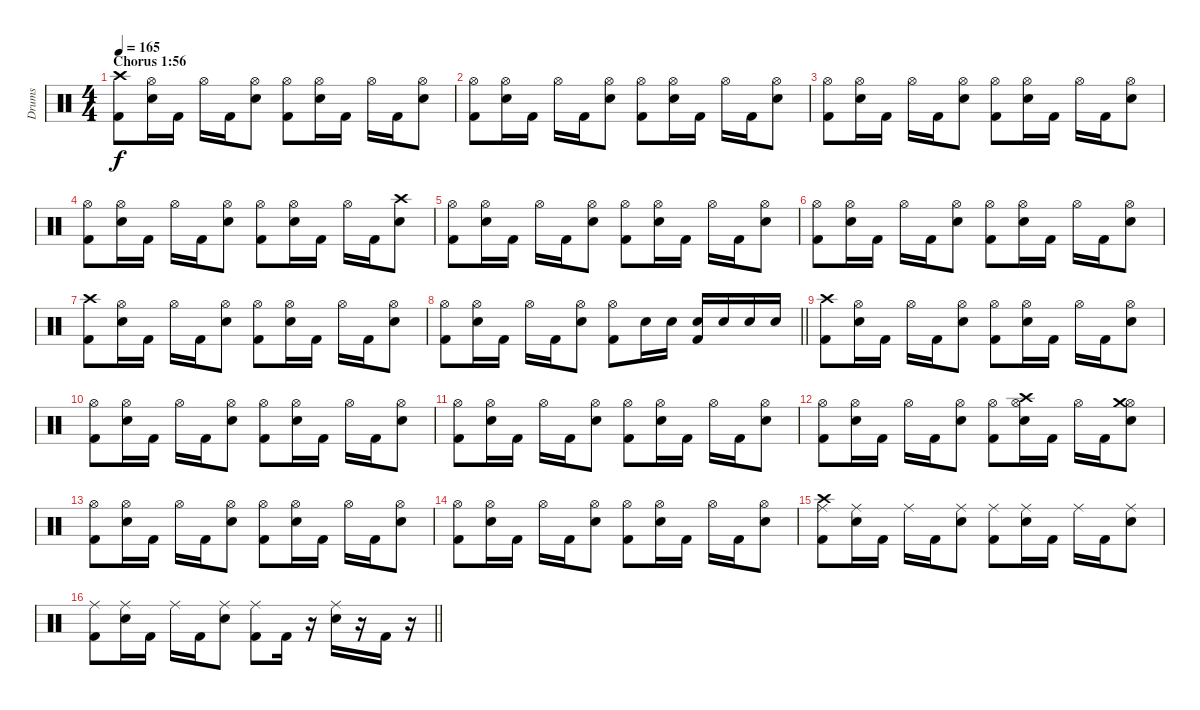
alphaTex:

\track ("Drums" "Drums") {instrument percussion}
\staff {score}
\articulation defaults
\ts (4 4)
\section ("" "Chorus 1:56")
\tempo 165
\clef neutral
\ks c
("Crash high (hit)" "Kick (hit) 2").8{dy f} ("Hi-Hat (open)" "Electric Snare (hit)").16 "Kick (hit) 2".16 "Hi-Hat (open)".16 "Kick (hit) 2".16 ("Hi-Hat (open)" "Electric Snare (hit)").8 ("Hi-Hat (open)" "Kick (hit) 2").8 ("Hi-Hat (open)" "Electric Snare (hit)").16 "Kick (hit) 2".16 "Hi-Hat (open)".16 "Kick (hit) 2".16 ("Hi-Hat (open)" "Electric Snare (hit)").8 |
("Hi-Hat (open)" "Kick (hit) 2").8 ("Hi-Hat (open)" "Electric Snare (hit)").16 "Kick (hit) 2".16 "Hi-Hat (open)".16 "Kick (hit) 2".16 ("Hi-Hat (open)" "Electric Snare (hit)").8 ("Hi-Hat (open)" "Kick (hit) 2").8 ("Hi-Hat (open)" "Electric Snare (hit)").16 "Kick (hit) 2".16 "Hi-Hat (open)".16 "Kick (hit) 2".16 ("Hi-Hat (open)" "Electric Snare (hit)").8 |
("Hi-Hat (open)" "Kick (hit) 2").8 ("Hi-Hat (open)" "Electric Snare (hit)").16 "Kick (hit) 2".16 "Hi-Hat (open)".16 "Kick (hit) 2".16 ("Hi-Hat (open)" "Electric Snare (hit)").8 ("Hi-Hat (open)" "Kick (hit) 2").8 ("Hi-Hat (open)" "Electric Snare (hit)").16 "Kick (hit) 2".16 "Hi-Hat (open)".16 "Kick (hit) 2".16 ("Hi-Hat (open)" "Electric Snare (hit)").8 |
("Hi-Hat (open)" "Kick (hit) 2").8 ("Hi-Hat (open)" "Electric Snare (hit)").16 "Kick (hit) 2".16 "Hi-Hat (open)".16 "Kick (hit) 2".16 ("Hi-Hat (open)" "Electric Snare (hit)").8 ("Hi-Hat (open)" "Kick (hit) 2").8 ("Hi-Hat (open)" "Electric Snare (hit)").16 "Kick (hit) 2".16 "Hi-Hat (open)".16 "Kick (hit) 2".16 ("Crash high (hit)" "Electric Snare (hit)").8 |
("Hi-Hat (open)" "Kick (hit) 2").8 ("Hi-Hat (open)" "Electric Snare (hit)").16 "Kick (hit) 2".16 "Hi-Hat (open)".16 "Kick (hit) 2".16 ("Hi-Hat (open)" "Electric Snare (hit)").8 ("Hi-Hat (open)" "Kick (hit) 2").8 ("Hi-Hat (open)" "Electric Snare (hit)").16 "Kick (hit) 2".16 "Hi-Hat (open)".16 "Kick (hit) 2".16 ("Hi-Hat (open)" "Electric Snare (hit)").8 |
("Hi-Hat (open)" "Kick (hit) 2").8 ("Hi-Hat (open)" "Electric Snare (hit)").16 "Kick (hit) 2".16 "Hi-Hat (open)".16 "Kick (hit) 2".16 ("Hi-Hat (open)" "Electric Snare (hit)").8 ("Hi-Hat (open)" "Kick (hit) 2").8 ("Hi-Hat (open)" "Electric Snare (hit)").16 "Kick (hit) 2".16 "Hi-Hat (open)".16 "Kick (hit) 2".16 ("Hi-Hat (open)" "Electric Snare (hit)").8 |
("Crash high (hit)" "Kick (hit) 2").8 ("Hi-Hat (open)" "Electric Snare (hit)").16 "Kick (hit) 2".16 "Hi-Hat (open)".16 "Kick (hit) 2".16 ("Hi-Hat (open)" "Electric Snare (hit)").8 ("Hi-Hat (open)" "Kick (hit) 2").8 ("Hi-Hat (open)" "Electric Snare (hit)").16 "Kick (hit) 2".16 "Hi-Hat (open)".16 "Kick (hit) 2".16 ("Hi-Hat (open)" "Electric Snare (hit)").8 |
\barLineRight lightlight
("Hi-Hat (open)" "Kick (hit) 2").8 ("Hi-Hat (open)" "Electric Snare (hit)").16 "Kick (hit) 2".16 "Hi-Hat (open)".16 "Kick (hit) 2".16 ("Hi-Hat (open)" "Electric Snare (hit)").8 ("Hi-Hat (open)" "Kick (hit) 2").8 "Electric Snare (hit)".16 "Electric Snare (hit)".16 ("Kick (hit) 2" "Electric Snare (hit)").16 "Electric Snare (hit)".16 "Electric Snare (hit)".16 "Electric Snare (hit)".16 |
("Crash high (hit)" "Kick (hit) 2").8 ("Hi-Hat (open)" "Electric Snare (hit)").16 "Kick (hit) 2".16 "Hi-Hat (open)".16 "Kick (hit) 2".16 ("Hi-Hat (open)" "Electric Snare (hit)").8 ("Hi-Hat (open)" "Kick (hit) 2").8 ("Hi-Hat (open)" "Electric Snare (hit)").16 "Kick (hit) 2".16 "Hi-Hat (open)".16 "Kick (hit) 2".16 ("Hi-Hat (open)" "Electric Snare (hit)").8 |
("Hi-Hat (open)" "Kick (hit) 2").8 ("Hi-Hat (open)" "Electric Snare (hit)").16 "Kick (hit) 2".16 "Hi-Hat (open)".16 "Kick (hit) 2".16 ("Hi-Hat (open)" "Electric Snare (hit)").8 ("Hi-Hat (open)" "Kick (hit) 2").8 ("Hi-Hat (open)" "Electric Snare (hit)").16 "Kick (hit) 2".16 "Hi-Hat (open)".16 "Kick (hit) 2".16 ("Hi-Hat (open)" "Electric Snare (hit)").8 |
("Hi-Hat (open)" "Kick (hit) 2").8 ("Hi-Hat (open)" "Electric Snare (hit)").16 "Kick (hit) 2".16 "Hi-Hat (open)".16 "Kick (hit) 2".16 ("Hi-Hat (open)" "Electric Snare (hit)").8 ("Hi-Hat (open)" "Kick (hit) 2").8 ("Hi-Hat (open)" "Electric Snare (hit)").16 "Kick (hit) 2".16 "Hi-Hat (open)".16 "Kick (hit) 2".16 ("Hi-Hat (open)" "Electric Snare (hit)").8 |
("Hi-Hat (open)" "Kick (hit) 2").8 ("Hi-Hat (open)" "Electric Snare (hit)").16 "Kick (hit) 2".16 "Hi-Hat (open)".16 "Kick (hit) 2".16 ("Hi-Hat (open)" "Electric Snare (hit)").8 ("Hi-Hat (open)" "Kick (hit) 2").8 ("Hi-Hat (open)" "Crash high (hit)" "Electric Snare (hit)").16 "Kick (hit) 2".16 "Hi-Hat (open)".16 "Kick (hit) 2".16 ("Hi-Hat (open)" "Crash medium (hit)" "Electric Snare (hit)").8 |
("Hi-Hat (open)" "Kick (hit) 2").8 ("Hi-Hat (open)" "Electric Snare (hit)").16 "Kick (hit) 2".16 "Hi-Hat (open)".16 "Kick (hit) 2".16 ("Hi-Hat (open)" "Electric Snare (hit)").8 ("Hi-Hat (open)" "Kick (hit) 2").8 ("Hi-Hat (open)" "Electric Snare (hit)").16 "Kick (hit) 2".16 "Hi-Hat (open)".16 "Kick (hit) 2".16 ("Hi-Hat (open)" "Electric Snare (hit)").8 |
("Hi-Hat (open)" "Kick (hit) 2").8 ("Hi-Hat (open)" "Electric Snare (hit)").16 "Kick (hit) 2".16 "Hi-Hat (open)".16 "Kick (hit) 2".16 ("Hi-Hat (open)" "Electric Snare (hit)").8 ("Hi-Hat (open)" "Kick (hit) 2").8 ("Hi-Hat (open)" "Electric Snare (hit)").16 "Kick (hit) 2".16 "Hi-Hat (open)".16 "Kick (hit) 2".16 ("Hi-Hat (open)" "Electric Snare (hit)").8 |
("Ride (middle)" "Crash high (hit)" "Kick (hit) 2").8 ("Ride (middle)" "Electric Snare (hit)").16 "Kick (hit) 2".16 "Ride (middle)".16 "Kick (hit) 2".16 ("Ride (middle)" "Electric Snare (hit)").8 ("Ride (middle)" "Kick (hit) 2").8 ("Ride (middle)" "Electric Snare (hit)").16 "Kick (hit) 2".16 "Ride (middle)".16 "Kick (hit) 2".16 ("Ride (middle)" "Electric Snare (hit)").8 |
\barLineRight lightlight
("Ride (middle)" "Kick (hit) 2").8 ("Ride (middle)" "Electric Snare (hit)").16 "Kick (hit) 2".16 "Ride (middle)".16 "Kick (hit) 2".16 ("Ride (middle)" "Electric Snare (hit)").8 ("Ride (middle)" "Kick (hit) 2").8 "Kick (hit) 2".16 r.16 ("Ride (middle)" "Electric Snare (hit)").16 r.16 "Kick (hit) 2".16 r.16
